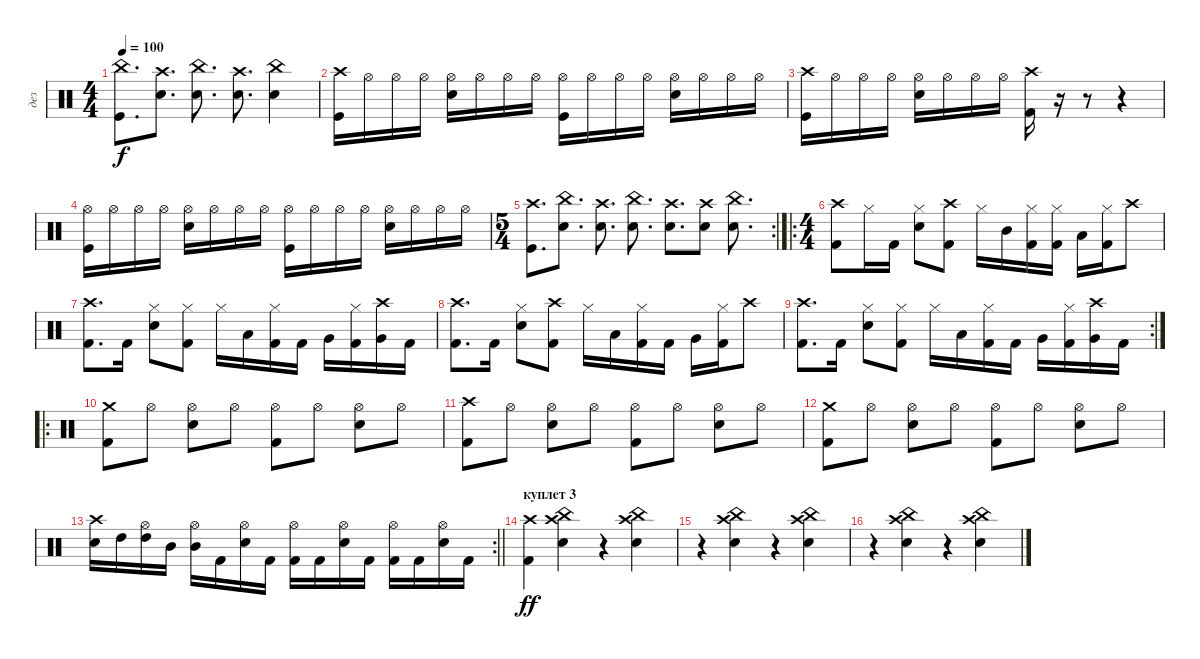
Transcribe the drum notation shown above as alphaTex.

\track ("дез" "дез") {instrument percussion}
\staff {score}
\articulation defaults
\ts (4 4)
\tempo 100
\clef neutral
\ks c
("China (hit)" "Kick (hit)").8{d dy f} ("Crash high (hit)" "Electric Snare (hit)").8{d} ("China (hit)" "Electric Snare (hit)").8{d} ("Crash high (hit)" "Electric Snare (hit)").8{d} ("China (hit)" "Electric Snare (hit)").4 |
("Crash high (hit)" "Kick (hit)").16 "Hi-Hat (open)".16 "Hi-Hat (open)".16 "Hi-Hat (open)".16 ("Hi-Hat (open)" "Electric Snare (hit)").16 "Hi-Hat (open)".16 "Hi-Hat (open)".16 "Hi-Hat (open)".16 ("Hi-Hat (open)" "Kick (hit)").16 "Hi-Hat (open)".16 "Hi-Hat (open)".16 "Hi-Hat (open)".16 ("Hi-Hat (open)" "Electric Snare (hit)").16 "Hi-Hat (open)".16 "Hi-Hat (open)".16 "Hi-Hat (open)".16 |
("Crash high (hit)" "Kick (hit)").16 "Hi-Hat (open)".16 "Hi-Hat (open)".16 "Hi-Hat (open)".16 ("Hi-Hat (open)" "Electric Snare (hit)").16 "Hi-Hat (open)".16 "Hi-Hat (open)".16 "Hi-Hat (open)".16 ("Crash high (hit)" "Kick (hit) 2").16 r.16 r.8 r.4 |
("Hi-Hat (open)" "Kick (hit)").16 "Hi-Hat (open)".16 "Hi-Hat (open)".16 "Hi-Hat (open)".16 ("Hi-Hat (open)" "Electric Snare (hit)").16 "Hi-Hat (open)".16 "Hi-Hat (open)".16 "Hi-Hat (open)".16 ("Hi-Hat (open)" "Kick (hit)").16 "Hi-Hat (open)".16 "Hi-Hat (open)".16 "Hi-Hat (open)".16 ("Hi-Hat (open)" "Electric Snare (hit)").16 "Hi-Hat (open)".16 "Hi-Hat (open)".16 "Hi-Hat (open)".16 |
\rc 2
\ts (5 4)
("Crash high (hit)" "Kick (hit)").8{d} ("China (hit)" "Electric Snare (hit)").8{d} ("Crash high (hit)" "Electric Snare (hit)").8{d} ("China (hit)" "Electric Snare (hit)").8{d} ("Crash high (hit)" "Electric Snare (hit)").8{d} ("Crash high (hit)" "Electric Snare (hit)").8 ("China (hit)" "Electric Snare (hit)").8{d} |
\ro
\ts (4 4)
("Crash high (hit)" "Kick (hit) 2").8 "Hi-Hat (closed)".16 "Kick (hit) 2".16 ("Hi-Hat (closed)" "Electric Snare (hit)").8 ("Crash high (hit)" "Kick (hit) 2").8 "Hi-Hat (closed)".16 "Mid Tom (hit)".16 ("Hi-Hat (closed)" "Kick (hit) 2").16 ("Hi-Hat (closed)" "Kick (hit) 2").16 "Low Tom (hit)".16 ("Hi-Hat (closed)" "Kick (hit) 2").16 "Crash high (hit)".8 |
("Crash high (hit)" "Kick (hit) 2").8{d} "Kick (hit) 2".16 ("Hi-Hat (closed)" "Electric Snare (hit)").8 ("Hi-Hat (closed)" "Kick (hit) 2").8 "Hi-Hat (closed)".16 "Low Tom (hit)".16 ("Hi-Hat (closed)" "Kick (hit) 2").16 "Kick (hit) 2".16 "Very Low Tom (hit)".16 ("Hi-Hat (closed)" "Kick (hit) 2").16 ("Crash high (hit)" "Very Low Tom (hit)").16 "Kick (hit) 2".16 |
("Crash high (hit)" "Kick (hit) 2").8{d} "Kick (hit) 2".16 ("Hi-Hat (closed)" "Electric Snare (hit)").8 ("Crash high (hit)" "Kick (hit) 2").8 "Hi-Hat (closed)".16 "Low Tom (hit)".16 ("Hi-Hat (closed)" "Kick (hit) 2").16 "Kick (hit) 2".16 "Very Low Tom (hit)".16 ("Hi-Hat (closed)" "Kick (hit) 2").16 "Crash high (hit)".8 |
\rc 2
("Crash high (hit)" "Kick (hit) 2").8{d} "Kick (hit) 2".16 ("Hi-Hat (closed)" "Electric Snare (hit)").8 ("Hi-Hat (closed)" "Kick (hit) 2").8 "Hi-Hat (closed)".16 "Low Tom (hit)".16 ("Hi-Hat (closed)" "Kick (hit) 2").16 "Kick (hit) 2".16 "Very Low Tom (hit)".16 ("Hi-Hat (closed)" "Kick (hit) 2").16 ("Crash high (hit)" "Very Low Tom (hit)").16 "Kick (hit) 2".16 |
\ro
("Crash medium (hit)" "Kick (hit) 2").8 "Hi-Hat (open)".8 ("Hi-Hat (open)" "Electric Snare (hit)").8 "Hi-Hat (open)".8 ("Hi-Hat (open)" "Kick (hit) 2").8 "Hi-Hat (open)".8 ("Hi-Hat (open)" "Electric Snare (hit)").8 "Hi-Hat (open)".8 |
("Crash high (hit)" "Kick (hit) 2").8 "Hi-Hat (open)".8 ("Hi-Hat (open)" "Electric Snare (hit)").8 "Hi-Hat (open)".8 ("Hi-Hat (open)" "Kick (hit) 2").8 "Hi-Hat (open)".8 ("Hi-Hat (open)" "Electric Snare (hit)").8 "Hi-Hat (open)".8 |
("Crash medium (hit)" "Kick (hit) 2").8 "Hi-Hat (open)".8 ("Hi-Hat (open)" "Electric Snare (hit)").8 "Hi-Hat (open)".8 ("Hi-Hat (open)" "Kick (hit) 2").8 "Hi-Hat (open)".8 ("Hi-Hat (open)" "Electric Snare (hit)").8 "Hi-Hat (open)".8 |
\rc 2
\barLineRight lightlight
("Crash high (hit)" "Electric Snare (hit)").16 "High Tom (hit)".16 ("Hi-Hat (open)" "High Tom (hit)").16 "Mid Tom (hit)".16 ("Hi-Hat (open)" "Mid Tom (hit)").16 "Kick (hit) 2".16 ("Hi-Hat (open)" "Electric Snare (hit)").16 "Kick (hit) 2".16 ("Hi-Hat (open)" "Kick (hit) 2").16 "Kick (hit) 2".16 ("Hi-Hat (open)" "Electric Snare (hit)").16 "Kick (hit) 2".16 ("Hi-Hat (open)" "Kick (hit) 2").16 "Kick (hit) 2".16 ("Hi-Hat (open)" "Electric Snare (hit)").16 "Kick (hit) 2".16 |
\section ("" "куплет 3")
("Kick (hit) 2" "Crash high (hit)").4{dy ff} ("Electric Snare (hit)" "Crash high (hit)" "China (hit)").4 r.4 ("Electric Snare (hit)" "Crash high (hit)" "China (hit)").4 |
r.4 ("Electric Snare (hit)" "Crash high (hit)" "China (hit)").4 r.4 ("Electric Snare (hit)" "Crash high (hit)" "China (hit)").4 |
r.4 ("Electric Snare (hit)" "Crash high (hit)" "China (hit)").4 r.4 ("Electric Snare (hit)" "Crash high (hit)" "China (hit)").4
